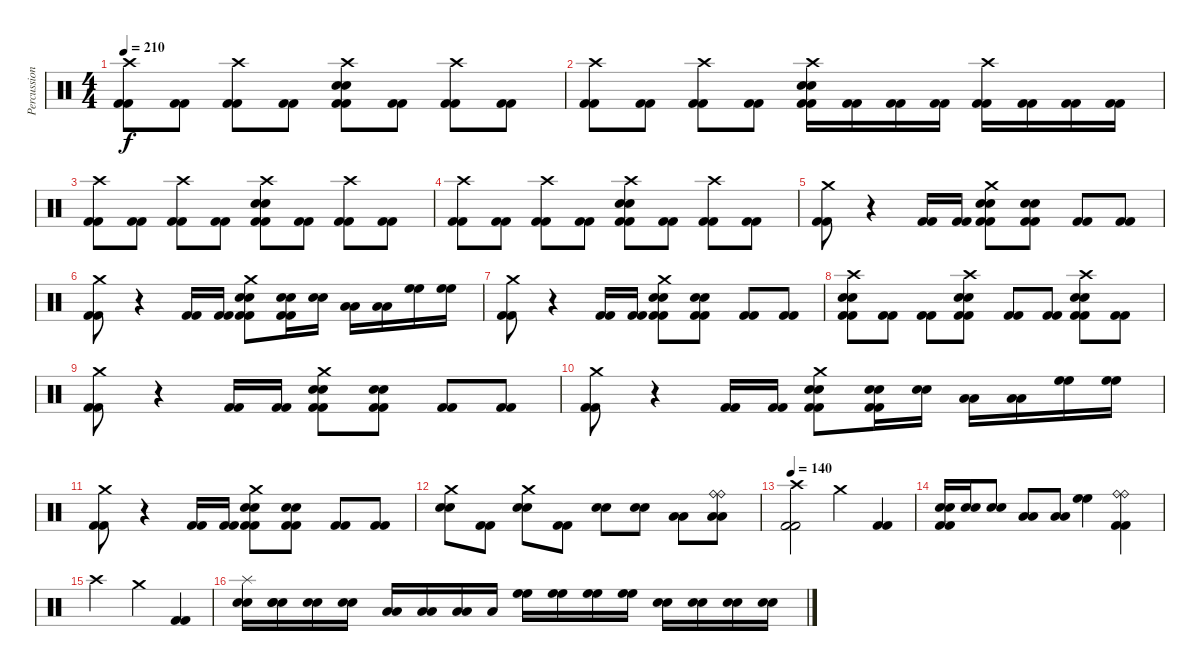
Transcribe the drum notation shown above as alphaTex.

\track ("Percussions" "Percussion") {instrument percussion}
\staff {score}
\articulation defaults
\ts (4 4)
\tempo 210
\clef neutral
\ks c
("Crash high (hit)" "Kick (hit) 2" "Kick (hit) 2").8{dy f} ("Kick (hit) 2" "Kick (hit) 2").8 ("Crash high (hit)" "Kick (hit) 2" "Kick (hit) 2").8 ("Kick (hit) 2" "Kick (hit) 2").8 ("Crash high (hit)" "Electric Snare (hit)" "Electric Snare (hit)" "Kick (hit) 2" "Kick (hit) 2").8 ("Kick (hit) 2" "Kick (hit) 2").8 ("Crash high (hit)" "Kick (hit) 2" "Kick (hit) 2").8 ("Kick (hit) 2" "Kick (hit) 2").8 |
("Crash high (hit)" "Kick (hit) 2" "Kick (hit) 2").8 ("Kick (hit) 2" "Kick (hit) 2").8 ("Crash high (hit)" "Kick (hit) 2" "Kick (hit) 2").8 ("Kick (hit) 2" "Kick (hit) 2").8 ("Crash high (hit)" "Electric Snare (hit)" "Electric Snare (hit)" "Kick (hit) 2" "Kick (hit) 2").16 ("Kick (hit) 2" "Kick (hit) 2").16 ("Kick (hit) 2" "Kick (hit) 2").16 ("Kick (hit) 2" "Kick (hit) 2").16 ("Crash high (hit)" "Kick (hit) 2" "Kick (hit) 2").16 ("Kick (hit) 2" "Kick (hit) 2").16 ("Kick (hit) 2" "Kick (hit) 2").16 ("Kick (hit) 2" "Kick (hit) 2").16 |
("Crash high (hit)" "Kick (hit) 2" "Kick (hit) 2").8 ("Kick (hit) 2" "Kick (hit) 2").8 ("Crash high (hit)" "Kick (hit) 2" "Kick (hit) 2").8 ("Kick (hit) 2" "Kick (hit) 2").8 ("Crash high (hit)" "Electric Snare (hit)" "Electric Snare (hit)" "Kick (hit) 2" "Kick (hit) 2").8 ("Kick (hit) 2" "Kick (hit) 2").8 ("Crash high (hit)" "Kick (hit) 2" "Kick (hit) 2").8 ("Kick (hit) 2" "Kick (hit) 2").8 |
("Crash high (hit)" "Kick (hit) 2" "Kick (hit) 2").8 ("Kick (hit) 2" "Kick (hit) 2").8 ("Crash high (hit)" "Kick (hit) 2" "Kick (hit) 2").8 ("Kick (hit) 2" "Kick (hit) 2").8 ("Crash high (hit)" "Electric Snare (hit)" "Electric Snare (hit)" "Kick (hit) 2" "Kick (hit) 2").8 ("Kick (hit) 2" "Kick (hit) 2").8 ("Crash high (hit)" "Kick (hit) 2" "Kick (hit) 2").8 ("Kick (hit) 2" "Kick (hit) 2").8 |
("Crash medium (hit)" "Kick (hit) 2" "Kick (hit) 2").8 r.4 ("Kick (hit) 2" "Kick (hit) 2").16 ("Kick (hit) 2" "Kick (hit) 2").16 ("Crash medium (hit)" "Electric Snare (hit)" "Electric Snare (hit)" "Kick (hit) 2" "Kick (hit) 2").8 ("Electric Snare (hit)" "Electric Snare (hit)" "Kick (hit) 2" "Kick (hit) 2").8 ("Kick (hit) 2" "Kick (hit) 2").8 ("Kick (hit) 2" "Kick (hit) 2").8 |
("Crash medium (hit)" "Kick (hit) 2" "Kick (hit) 2").8 r.4 ("Kick (hit) 2" "Kick (hit) 2").16 ("Kick (hit) 2" "Kick (hit) 2").16 ("Crash medium (hit)" "Electric Snare (hit)" "Electric Snare (hit)" "Kick (hit) 2" "Kick (hit) 2").8 ("Electric Snare (hit)" "Electric Snare (hit)" "Kick (hit) 2" "Kick (hit) 2").16 ("Electric Snare (hit)" "Electric Snare (hit)").16 ("Low Tom (hit)" "Low Tom (hit)").16 ("Low Tom (hit)" "Low Tom (hit)").16 ("High Floor Tom (hit)" "High Floor Tom (hit)").16 ("High Floor Tom (hit)" "High Floor Tom (hit)").16 |
("Crash medium (hit)" "Kick (hit) 2" "Kick (hit) 2").8 r.4 ("Kick (hit) 2" "Kick (hit) 2").16 ("Kick (hit) 2" "Kick (hit) 2").16 ("Crash medium (hit)" "Electric Snare (hit)" "Electric Snare (hit)" "Kick (hit) 2" "Kick (hit) 2").8 ("Electric Snare (hit)" "Electric Snare (hit)" "Kick (hit) 2" "Kick (hit) 2").8 ("Kick (hit) 2" "Kick (hit) 2").8 ("Kick (hit) 2" "Kick (hit) 2").8 |
("Crash high (hit)" "Electric Snare (hit)" "Electric Snare (hit)" "Kick (hit) 2" "Kick (hit) 2").8 ("Kick (hit) 2" "Kick (hit) 2").8 ("Kick (hit) 2" "Kick (hit) 2").8 ("Crash high (hit)" "Electric Snare (hit)" "Electric Snare (hit)" "Kick (hit) 2" "Kick (hit) 2").8 ("Kick (hit) 2" "Kick (hit) 2").8 ("Kick (hit) 2" "Kick (hit) 2").8 ("Crash high (hit)" "Electric Snare (hit)" "Electric Snare (hit)" "Kick (hit) 2" "Kick (hit) 2").8 ("Kick (hit) 2" "Kick (hit) 2").8 |
("Crash medium (hit)" "Kick (hit) 2" "Kick (hit) 2").8 r.4 ("Kick (hit) 2" "Kick (hit) 2").16 ("Kick (hit) 2" "Kick (hit) 2").16 ("Crash medium (hit)" "Electric Snare (hit)" "Electric Snare (hit)" "Kick (hit) 2" "Kick (hit) 2").8 ("Electric Snare (hit)" "Electric Snare (hit)" "Kick (hit) 2" "Kick (hit) 2").8 ("Kick (hit) 2" "Kick (hit) 2").8 ("Kick (hit) 2" "Kick (hit) 2").8 |
("Crash medium (hit)" "Kick (hit) 2" "Kick (hit) 2").8 r.4 ("Kick (hit) 2" "Kick (hit) 2").16 ("Kick (hit) 2" "Kick (hit) 2").16 ("Crash medium (hit)" "Electric Snare (hit)" "Electric Snare (hit)" "Kick (hit) 2" "Kick (hit) 2").8 ("Electric Snare (hit)" "Electric Snare (hit)" "Kick (hit) 2" "Kick (hit) 2").16 ("Electric Snare (hit)" "Electric Snare (hit)").16 ("Low Tom (hit)" "Low Tom (hit)").16 ("Low Tom (hit)" "Low Tom (hit)").16 ("High Floor Tom (hit)" "High Floor Tom (hit)").16 ("High Floor Tom (hit)" "High Floor Tom (hit)").16 |
("Crash medium (hit)" "Kick (hit) 2" "Kick (hit) 2").8 r.4 ("Kick (hit) 2" "Kick (hit) 2").16 ("Kick (hit) 2" "Kick (hit) 2").16 ("Crash medium (hit)" "Electric Snare (hit)" "Electric Snare (hit)" "Kick (hit) 2" "Kick (hit) 2").8 ("Electric Snare (hit)" "Electric Snare (hit)" "Kick (hit) 2" "Kick (hit) 2").8 ("Kick (hit) 2" "Kick (hit) 2").8 ("Kick (hit) 2" "Kick (hit) 2").8 |
("Crash medium (hit)" "Electric Snare (hit)" "Electric Snare (hit)").8 ("Kick (hit) 2" "Kick (hit) 2").8 ("Crash medium (hit)" "Electric Snare (hit)" "Electric Snare (hit)").8 ("Kick (hit) 2" "Kick (hit) 2").8 ("Electric Snare (hit)" "Electric Snare (hit)").8 ("Electric Snare (hit)" "Electric Snare (hit)").8 ("Low Tom (hit)" "Low Tom (hit)").8 ("Ride (bell)" "Ride (bell)" "Low Tom (hit)" "Low Tom (hit)").8 |
\tempo 140
("Crash high (hit)" "Kick (hit) 2" "Kick (hit) 2").2 "Crash medium (hit)".4 ("Kick (hit) 2" "Kick (hit) 2").4 |
("Electric Snare (hit)" "Electric Snare (hit)" "Kick (hit) 2" "Kick (hit) 2").16 ("Electric Snare (hit)" "Electric Snare (hit)").16 ("Electric Snare (hit)" "Electric Snare (hit)").8 ("Low Tom (hit)" "Low Tom (hit)").8 ("Low Tom (hit)" "Low Tom (hit)").8 ("High Floor Tom (hit)" "High Floor Tom (hit)").4 ("Ride (bell)" "Ride (bell)" "Kick (hit) 2" "Kick (hit) 2").4 |
"Crash high (hit)".2 "Crash medium (hit)".4 ("Kick (hit) 2" "Kick (hit) 2").4 |
("Splash (hit)" "Electric Snare (hit)" "Electric Snare (hit)").16 ("Electric Snare (hit)" "Electric Snare (hit)" "Electric Snare (hit)").16 ("Electric Snare (hit)" "Electric Snare (hit)").16 ("Electric Snare (hit)" "Electric Snare (hit)").16 ("Low Tom (hit)" "Low Tom (hit)").16 ("Low Tom (hit)" "Low Tom (hit)").16 ("Low Tom (hit)" "Low Tom (hit)").16 "Low Tom (hit)".16 ("High Floor Tom (hit)" "High Floor Tom (hit)").16 ("High Floor Tom (hit)" "High Floor Tom (hit)").16 ("High Floor Tom (hit)" "High Floor Tom (hit)").16 ("High Floor Tom (hit)" "High Floor Tom (hit)").16 ("Electric Snare (hit)" "Electric Snare (hit)").16 ("Electric Snare (hit)" "Electric Snare (hit)").16 ("Electric Snare (hit)" "Electric Snare (hit)").16 ("Electric Snare (hit)" "Electric Snare (hit)").16
